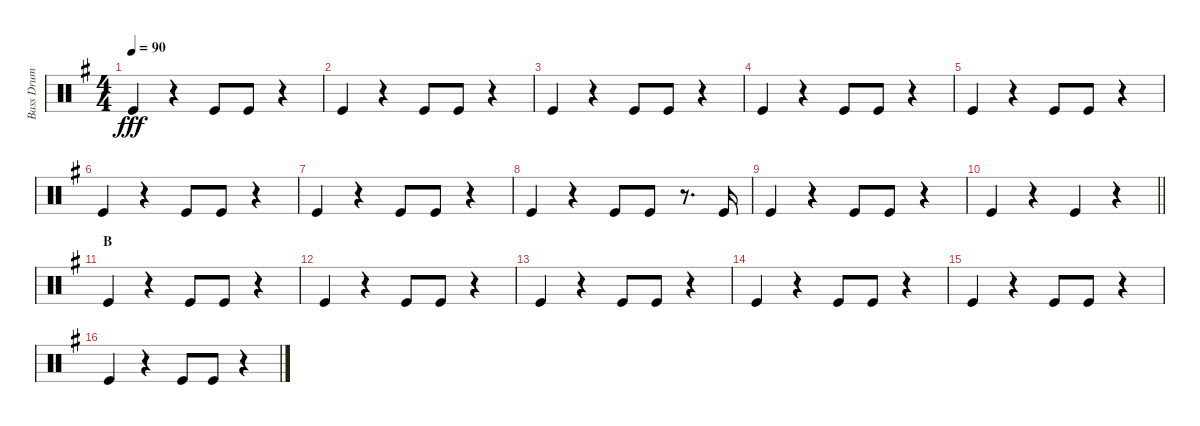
\track ("Bass Drum" "Bass Drum") {instrument percussion}
\staff {score}
\articulation defaults
\ts (4 4)
\tempo 90
\clef neutral
\ks g "Kick (hit)".4{dy fff}
r.4 "Kick (hit)".8 "Kick (hit)".8 r.4 |
"Kick (hit)".4 r.4 "Kick (hit)".8 "Kick (hit)".8 r.4 |
"Kick (hit)".4 r.4 "Kick (hit)".8 "Kick (hit)".8 r.4 |
"Kick (hit)".4 r.4 "Kick (hit)".8 "Kick (hit)".8 r.4 |
"Kick (hit)".4 r.4 "Kick (hit)".8 "Kick (hit)".8 r.4 |
"Kick (hit)".4 r.4 "Kick (hit)".8 "Kick (hit)".8 r.4 |
"Kick (hit)".4 r.4 "Kick (hit)".8 "Kick (hit)".8 r.4 |
"Kick (hit)".4 r.4 "Kick (hit)".8 "Kick (hit)".8 r.8{d} "Kick (hit)".16 |
"Kick (hit)".4 r.4 "Kick (hit)".8 "Kick (hit)".8 r.4 |
\barLineRight lightlight "Kick (hit)".4
r.4 "Kick (hit)".4 r.4 |
\section ("" "B")
"Kick (hit)".4 r.4 "Kick (hit)".8 "Kick (hit)".8 r.4 |
"Kick (hit)".4 r.4 "Kick (hit)".8 "Kick (hit)".8 r.4 |
"Kick (hit)".4 r.4 "Kick (hit)".8 "Kick (hit)".8 r.4 |
"Kick (hit)".4 r.4 "Kick (hit)".8 "Kick (hit)".8 r.4 |
"Kick (hit)".4 r.4 "Kick (hit)".8 "Kick (hit)".8 r.4 |
"Kick (hit)".4 r.4 "Kick (hit)".8 "Kick (hit)".8 r.4
